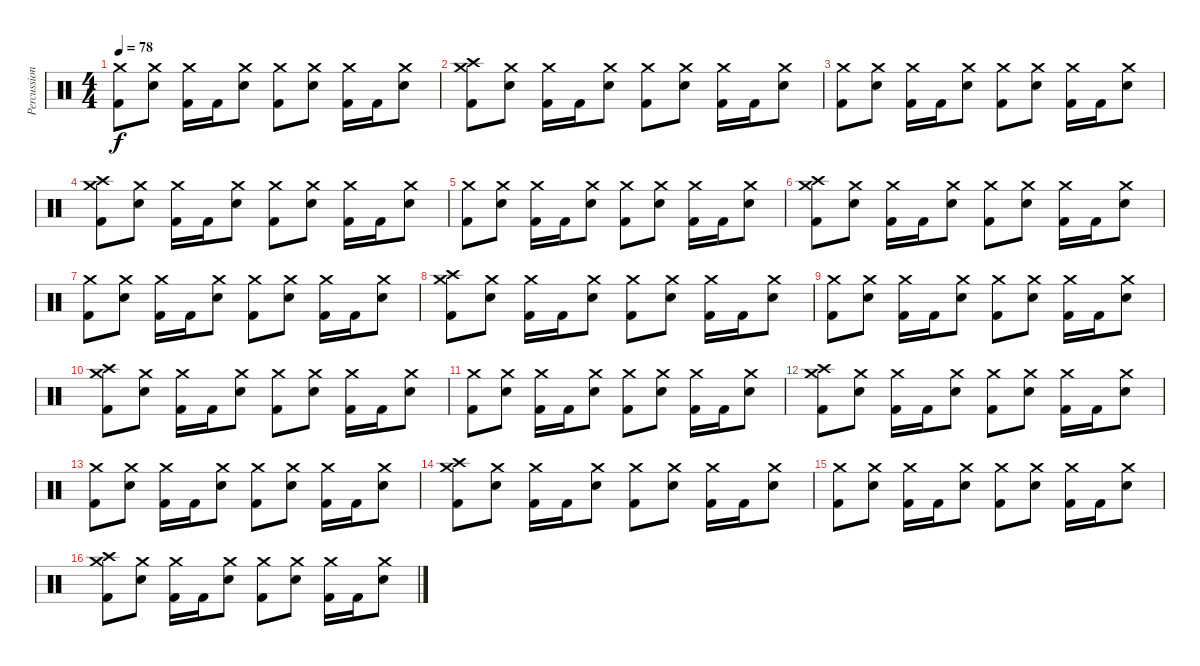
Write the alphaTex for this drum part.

\track ("Percussioni" "Percussion") {instrument percussion}
\staff {score}
\articulation defaults
\ts (4 4)
\tempo 78
\clef neutral
\ks c
("Crash medium (hit)" "Kick (hit) 2").8{dy f} ("Crash medium (hit)" "Snare (hit) 2").8 ("Crash medium (hit)" "Kick (hit) 2").16 "Kick (hit) 2".16 ("Crash medium (hit)" "Snare (hit) 2").8 ("Crash medium (hit)" "Kick (hit) 2").8 ("Crash medium (hit)" "Snare (hit) 2").8 ("Crash medium (hit)" "Kick (hit) 2").16 "Kick (hit) 2".16 ("Crash medium (hit)" "Snare (hit) 2").8 |
("Crash high (hit)" "Crash medium (hit)" "Kick (hit) 2").8 ("Crash medium (hit)" "Snare (hit) 2").8 ("Crash medium (hit)" "Kick (hit) 2").16 "Kick (hit) 2".16 ("Crash medium (hit)" "Snare (hit) 2").8 ("Crash medium (hit)" "Kick (hit) 2").8 ("Crash medium (hit)" "Snare (hit) 2").8 ("Crash medium (hit)" "Kick (hit) 2").16 "Kick (hit) 2".16 ("Crash medium (hit)" "Snare (hit) 2").8 |
("Crash medium (hit)" "Kick (hit) 2").8 ("Crash medium (hit)" "Snare (hit) 2").8 ("Crash medium (hit)" "Kick (hit) 2").16 "Kick (hit) 2".16 ("Crash medium (hit)" "Snare (hit) 2").8 ("Crash medium (hit)" "Kick (hit) 2").8 ("Crash medium (hit)" "Snare (hit) 2").8 ("Crash medium (hit)" "Kick (hit) 2").16 "Kick (hit) 2".16 ("Crash medium (hit)" "Snare (hit) 2").8 |
("Crash high (hit)" "Crash medium (hit)" "Kick (hit) 2").8 ("Crash medium (hit)" "Snare (hit) 2").8 ("Crash medium (hit)" "Kick (hit) 2").16 "Kick (hit) 2".16 ("Crash medium (hit)" "Snare (hit) 2").8 ("Crash medium (hit)" "Kick (hit) 2").8 ("Crash medium (hit)" "Snare (hit) 2").8 ("Crash medium (hit)" "Kick (hit) 2").16 "Kick (hit) 2".16 ("Crash medium (hit)" "Snare (hit) 2").8 |
("Crash medium (hit)" "Kick (hit) 2").8 ("Crash medium (hit)" "Snare (hit) 2").8 ("Crash medium (hit)" "Kick (hit) 2").16 "Kick (hit) 2".16 ("Crash medium (hit)" "Snare (hit) 2").8 ("Crash medium (hit)" "Kick (hit) 2").8 ("Crash medium (hit)" "Snare (hit) 2").8 ("Crash medium (hit)" "Kick (hit) 2").16 "Kick (hit) 2".16 ("Crash medium (hit)" "Snare (hit) 2").8 |
("Crash high (hit)" "Crash medium (hit)" "Kick (hit) 2").8 ("Crash medium (hit)" "Snare (hit) 2").8 ("Crash medium (hit)" "Kick (hit) 2").16 "Kick (hit) 2".16 ("Crash medium (hit)" "Snare (hit) 2").8 ("Crash medium (hit)" "Kick (hit) 2").8 ("Crash medium (hit)" "Snare (hit) 2").8 ("Crash medium (hit)" "Kick (hit) 2").16 "Kick (hit) 2".16 ("Crash medium (hit)" "Snare (hit) 2").8 |
("Crash medium (hit)" "Kick (hit) 2").8 ("Crash medium (hit)" "Snare (hit) 2").8 ("Crash medium (hit)" "Kick (hit) 2").16 "Kick (hit) 2".16 ("Crash medium (hit)" "Snare (hit) 2").8 ("Crash medium (hit)" "Kick (hit) 2").8 ("Crash medium (hit)" "Snare (hit) 2").8 ("Crash medium (hit)" "Kick (hit) 2").16 "Kick (hit) 2".16 ("Crash medium (hit)" "Snare (hit) 2").8 |
("Crash high (hit)" "Crash medium (hit)" "Kick (hit) 2").8 ("Crash medium (hit)" "Snare (hit) 2").8 ("Crash medium (hit)" "Kick (hit) 2").16 "Kick (hit) 2".16 ("Crash medium (hit)" "Snare (hit) 2").8 ("Crash medium (hit)" "Kick (hit) 2").8 ("Crash medium (hit)" "Snare (hit) 2").8 ("Crash medium (hit)" "Kick (hit) 2").16 "Kick (hit) 2".16 ("Crash medium (hit)" "Snare (hit) 2").8 |
("Crash medium (hit)" "Kick (hit) 2").8 ("Crash medium (hit)" "Snare (hit) 2").8 ("Crash medium (hit)" "Kick (hit) 2").16 "Kick (hit) 2".16 ("Crash medium (hit)" "Snare (hit) 2").8 ("Crash medium (hit)" "Kick (hit) 2").8 ("Crash medium (hit)" "Snare (hit) 2").8 ("Crash medium (hit)" "Kick (hit) 2").16 "Kick (hit) 2".16 ("Crash medium (hit)" "Snare (hit) 2").8 |
("Crash high (hit)" "Crash medium (hit)" "Kick (hit) 2").8 ("Crash medium (hit)" "Snare (hit) 2").8 ("Crash medium (hit)" "Kick (hit) 2").16 "Kick (hit) 2".16 ("Crash medium (hit)" "Snare (hit) 2").8 ("Crash medium (hit)" "Kick (hit) 2").8 ("Crash medium (hit)" "Snare (hit) 2").8 ("Crash medium (hit)" "Kick (hit) 2").16 "Kick (hit) 2".16 ("Crash medium (hit)" "Snare (hit) 2").8 |
("Crash medium (hit)" "Kick (hit) 2").8 ("Crash medium (hit)" "Snare (hit) 2").8 ("Crash medium (hit)" "Kick (hit) 2").16 "Kick (hit) 2".16 ("Crash medium (hit)" "Snare (hit) 2").8 ("Crash medium (hit)" "Kick (hit) 2").8 ("Crash medium (hit)" "Snare (hit) 2").8 ("Crash medium (hit)" "Kick (hit) 2").16 "Kick (hit) 2".16 ("Crash medium (hit)" "Snare (hit) 2").8 |
("Crash high (hit)" "Crash medium (hit)" "Kick (hit) 2").8 ("Crash medium (hit)" "Snare (hit) 2").8 ("Crash medium (hit)" "Kick (hit) 2").16 "Kick (hit) 2".16 ("Crash medium (hit)" "Snare (hit) 2").8 ("Crash medium (hit)" "Kick (hit) 2").8 ("Crash medium (hit)" "Snare (hit) 2").8 ("Crash medium (hit)" "Kick (hit) 2").16 "Kick (hit) 2".16 ("Crash medium (hit)" "Snare (hit) 2").8 |
("Crash medium (hit)" "Kick (hit) 2").8 ("Crash medium (hit)" "Snare (hit) 2").8 ("Crash medium (hit)" "Kick (hit) 2").16 "Kick (hit) 2".16 ("Crash medium (hit)" "Snare (hit) 2").8 ("Crash medium (hit)" "Kick (hit) 2").8 ("Crash medium (hit)" "Snare (hit) 2").8 ("Crash medium (hit)" "Kick (hit) 2").16 "Kick (hit) 2".16 ("Crash medium (hit)" "Snare (hit) 2").8 |
("Crash high (hit)" "Crash medium (hit)" "Kick (hit) 2").8 ("Crash medium (hit)" "Snare (hit) 2").8 ("Crash medium (hit)" "Kick (hit) 2").16 "Kick (hit) 2".16 ("Crash medium (hit)" "Snare (hit) 2").8 ("Crash medium (hit)" "Kick (hit) 2").8 ("Crash medium (hit)" "Snare (hit) 2").8 ("Crash medium (hit)" "Kick (hit) 2").16 "Kick (hit) 2".16 ("Crash medium (hit)" "Snare (hit) 2").8 |
("Crash medium (hit)" "Kick (hit) 2").8 ("Crash medium (hit)" "Snare (hit) 2").8 ("Crash medium (hit)" "Kick (hit) 2").16 "Kick (hit) 2".16 ("Crash medium (hit)" "Snare (hit) 2").8 ("Crash medium (hit)" "Kick (hit) 2").8 ("Crash medium (hit)" "Snare (hit) 2").8 ("Crash medium (hit)" "Kick (hit) 2").16 "Kick (hit) 2".16 ("Crash medium (hit)" "Snare (hit) 2").8 |
("Crash high (hit)" "Crash medium (hit)" "Kick (hit) 2").8 ("Crash medium (hit)" "Snare (hit) 2").8 ("Crash medium (hit)" "Kick (hit) 2").16 "Kick (hit) 2".16 ("Crash medium (hit)" "Snare (hit) 2").8 ("Crash medium (hit)" "Kick (hit) 2").8 ("Crash medium (hit)" "Snare (hit) 2").8 ("Crash medium (hit)" "Kick (hit) 2").16 "Kick (hit) 2".16 ("Crash medium (hit)" "Snare (hit) 2").8
